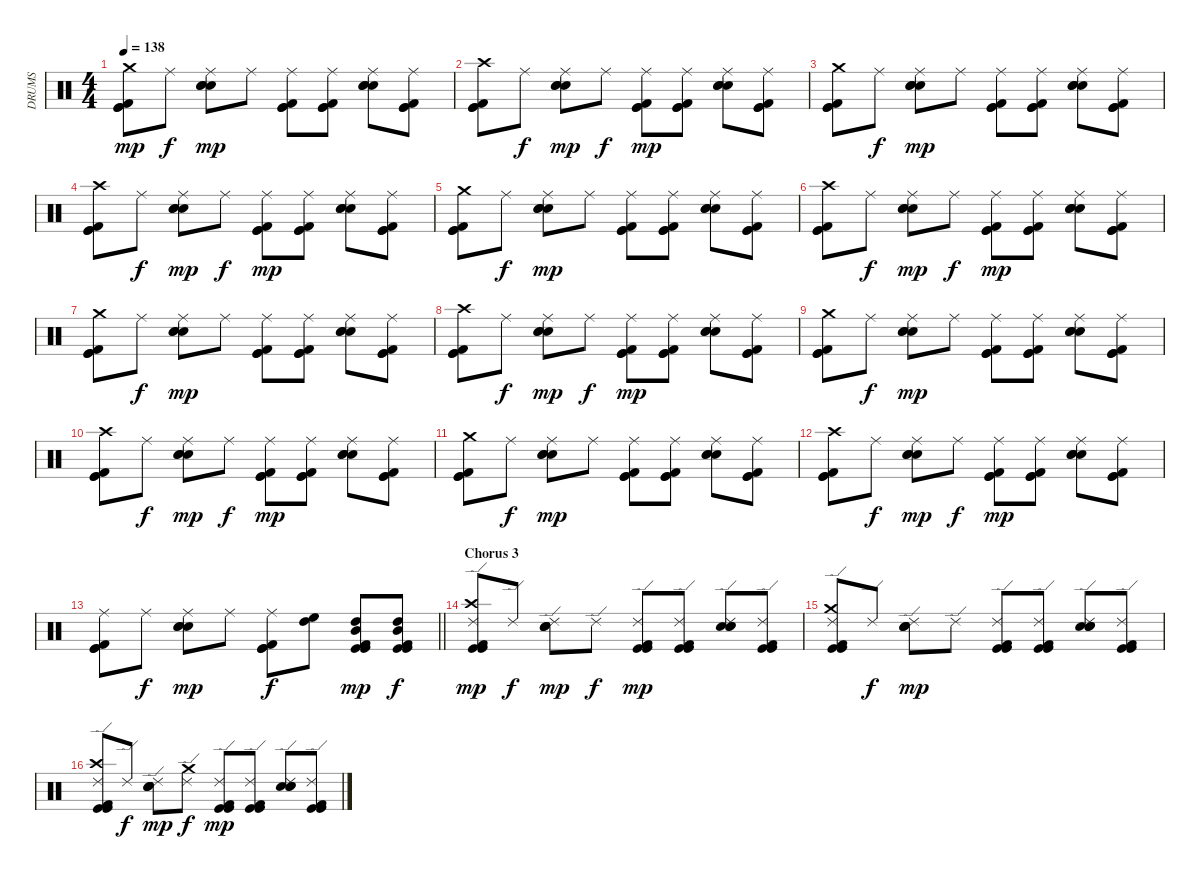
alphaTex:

\track ("DRUMS" "DRUMS") {instrument percussion}
\staff {score}
\articulation defaults
\ts (4 4)
\tempo 138
\clef neutral
\ks c
("Kick (hit) 2" "Kick (hit)" "Kick (hit)" "Crash medium (hit)").8{dy mp} "Ride (middle)".8{dy f} ("Ride (middle)" "Electric Snare (hit)" "Snare (hit) 2" "Snare (hit) 2").8{dy mp} "Ride (middle)".8 ("Ride (middle)" "Kick (hit) 2" "Kick (hit)" "Kick (hit)").8 ("Ride (middle)" "Kick (hit) 2" "Kick (hit)" "Kick (hit)").8 ("Ride (middle)" "Electric Snare (hit)" "Snare (hit) 2" "Snare (hit) 2").8 ("Ride (middle)" "Kick (hit) 2" "Kick (hit)" "Kick (hit)").8 |
("Kick (hit) 2" "Kick (hit)" "Kick (hit)" "Crash high (hit)").8 "Ride (middle)".8{dy f} ("Ride (middle)" "Electric Snare (hit)" "Snare (hit) 2" "Snare (hit) 2").8{dy mp} "Ride (middle)".8{dy f} ("Ride (middle)" "Kick (hit) 2" "Kick (hit)" "Kick (hit)").8{dy mp} ("Ride (middle)" "Kick (hit) 2" "Kick (hit)" "Kick (hit)").8 ("Ride (middle)" "Electric Snare (hit)" "Snare (hit) 2" "Snare (hit) 2").8 ("Ride (middle)" "Kick (hit) 2" "Kick (hit)" "Kick (hit)").8 |
("Kick (hit) 2" "Kick (hit)" "Kick (hit)" "Crash medium (hit)").8 "Ride (middle)".8{dy f} ("Ride (middle)" "Electric Snare (hit)" "Snare (hit) 2" "Snare (hit) 2").8{dy mp} "Ride (middle)".8 ("Ride (middle)" "Kick (hit) 2" "Kick (hit)" "Kick (hit)").8 ("Ride (middle)" "Kick (hit) 2" "Kick (hit)" "Kick (hit)").8 ("Ride (middle)" "Electric Snare (hit)" "Snare (hit) 2" "Snare (hit) 2").8 ("Ride (middle)" "Kick (hit) 2" "Kick (hit)" "Kick (hit)").8 |
("Kick (hit) 2" "Kick (hit)" "Kick (hit)" "Crash high (hit)").8 "Ride (middle)".8{dy f} ("Ride (middle)" "Electric Snare (hit)" "Snare (hit) 2" "Snare (hit) 2").8{dy mp} "Ride (middle)".8{dy f} ("Ride (middle)" "Kick (hit) 2" "Kick (hit)" "Kick (hit)").8{dy mp} ("Ride (middle)" "Kick (hit) 2" "Kick (hit)" "Kick (hit)").8 ("Ride (middle)" "Electric Snare (hit)" "Snare (hit) 2" "Snare (hit) 2").8 ("Ride (middle)" "Kick (hit) 2" "Kick (hit)" "Kick (hit)").8 |
("Kick (hit) 2" "Kick (hit)" "Kick (hit)" "Crash medium (hit)").8 "Ride (middle)".8{dy f} ("Ride (middle)" "Electric Snare (hit)" "Snare (hit) 2" "Snare (hit) 2").8{dy mp} "Ride (middle)".8 ("Ride (middle)" "Kick (hit) 2" "Kick (hit)" "Kick (hit)").8 ("Ride (middle)" "Kick (hit) 2" "Kick (hit)" "Kick (hit)").8 ("Ride (middle)" "Electric Snare (hit)" "Snare (hit) 2" "Snare (hit) 2").8 ("Ride (middle)" "Kick (hit) 2" "Kick (hit)" "Kick (hit)").8 |
("Kick (hit) 2" "Kick (hit)" "Kick (hit)" "Crash high (hit)").8 "Ride (middle)".8{dy f} ("Ride (middle)" "Electric Snare (hit)" "Snare (hit) 2" "Snare (hit) 2").8{dy mp} "Ride (middle)".8{dy f} ("Ride (middle)" "Kick (hit) 2" "Kick (hit)" "Kick (hit)").8{dy mp} ("Ride (middle)" "Kick (hit) 2" "Kick (hit)" "Kick (hit)").8 ("Ride (middle)" "Electric Snare (hit)" "Snare (hit) 2" "Snare (hit) 2").8 ("Ride (middle)" "Kick (hit) 2" "Kick (hit)" "Kick (hit)").8 |
("Kick (hit) 2" "Kick (hit)" "Kick (hit)" "Crash medium (hit)").8 "Ride (middle)".8{dy f} ("Ride (middle)" "Electric Snare (hit)" "Snare (hit) 2" "Snare (hit) 2").8{dy mp} "Ride (middle)".8 ("Ride (middle)" "Kick (hit) 2" "Kick (hit)" "Kick (hit)").8 ("Ride (middle)" "Kick (hit) 2" "Kick (hit)" "Kick (hit)").8 ("Ride (middle)" "Electric Snare (hit)" "Snare (hit) 2" "Snare (hit) 2").8 ("Ride (middle)" "Kick (hit) 2" "Kick (hit)" "Kick (hit)").8 |
("Kick (hit) 2" "Kick (hit)" "Kick (hit)" "Crash high (hit)").8 "Ride (middle)".8{dy f} ("Ride (middle)" "Electric Snare (hit)" "Snare (hit) 2" "Snare (hit) 2").8{dy mp} "Ride (middle)".8{dy f} ("Ride (middle)" "Kick (hit) 2" "Kick (hit)" "Kick (hit)").8{dy mp} ("Ride (middle)" "Kick (hit) 2" "Kick (hit)" "Kick (hit)").8 ("Ride (middle)" "Electric Snare (hit)" "Snare (hit) 2" "Snare (hit) 2").8 ("Ride (middle)" "Kick (hit) 2" "Kick (hit)" "Kick (hit)").8 |
("Kick (hit) 2" "Kick (hit)" "Kick (hit)" "Crash medium (hit)").8 "Ride (middle)".8{dy f} ("Ride (middle)" "Electric Snare (hit)" "Snare (hit) 2" "Snare (hit) 2").8{dy mp} "Ride (middle)".8 ("Ride (middle)" "Kick (hit) 2" "Kick (hit)" "Kick (hit)").8 ("Ride (middle)" "Kick (hit) 2" "Kick (hit)" "Kick (hit)").8 ("Ride (middle)" "Electric Snare (hit)" "Snare (hit) 2" "Snare (hit) 2").8 ("Ride (middle)" "Kick (hit) 2" "Kick (hit)" "Kick (hit)").8 |
("Kick (hit) 2" "Kick (hit)" "Kick (hit)" "Crash high (hit)").8 "Ride (middle)".8{dy f} ("Ride (middle)" "Electric Snare (hit)" "Snare (hit) 2" "Snare (hit) 2").8{dy mp} "Ride (middle)".8{dy f} ("Ride (middle)" "Kick (hit) 2" "Kick (hit)" "Kick (hit)").8{dy mp} ("Ride (middle)" "Kick (hit) 2" "Kick (hit)" "Kick (hit)").8 ("Ride (middle)" "Electric Snare (hit)" "Snare (hit) 2" "Snare (hit) 2").8 ("Ride (middle)" "Kick (hit) 2" "Kick (hit)" "Kick (hit)").8 |
("Kick (hit) 2" "Kick (hit)" "Kick (hit)" "Crash medium (hit)").8 "Ride (middle)".8{dy f} ("Ride (middle)" "Electric Snare (hit)" "Snare (hit) 2" "Snare (hit) 2").8{dy mp} "Ride (middle)".8 ("Ride (middle)" "Kick (hit) 2" "Kick (hit)" "Kick (hit)").8 ("Ride (middle)" "Kick (hit) 2" "Kick (hit)" "Kick (hit)").8 ("Ride (middle)" "Electric Snare (hit)" "Snare (hit) 2" "Snare (hit) 2").8 ("Ride (middle)" "Kick (hit) 2" "Kick (hit)" "Kick (hit)").8 |
("Kick (hit) 2" "Kick (hit)" "Kick (hit)" "Crash high (hit)").8 "Ride (middle)".8{dy f} ("Ride (middle)" "Electric Snare (hit)" "Snare (hit) 2" "Snare (hit) 2").8{dy mp} "Ride (middle)".8{dy f} ("Ride (middle)" "Kick (hit) 2" "Kick (hit)" "Kick (hit)").8{dy mp} ("Ride (middle)" "Kick (hit) 2" "Kick (hit)" "Kick (hit)").8 ("Ride (middle)" "Electric Snare (hit)" "Snare (hit) 2" "Snare (hit) 2").8 ("Ride (middle)" "Kick (hit) 2" "Kick (hit)" "Kick (hit)").8 |
\barLineRight lightlight
("Ride (middle)" "Kick (hit) 2" "Kick (hit)" "Kick (hit)").8 "Ride (middle)".8{dy f} ("Ride (middle)" "Electric Snare (hit)" "Snare (hit) 2" "Snare (hit) 2").8{dy mp} "Ride (middle)".8 ("Ride (middle)" "Kick (hit) 2" "Kick (hit)" "Kick (hit)").8{dy f} ("High Floor Tom (hit)" "High Tom (hit)").8{volume 12} ("Kick (hit) 2" "Kick (hit)" "Kick (hit)" "High Tom (hit)" "Mid Tom (hit)").8{dy mp balance 4} ("Kick (hit) 2" "Kick (hit)" "Kick (hit)" "High Tom (hit)" "Mid Tom (hit)").8{dy f balance 12} |
\section ("" "Chorus 3")
("Ride (edge) 2" "Kick (hit) 2" "Kick (hit)" "Kick (hit)" "Crash high (hit)").8{dy mp volume 8 balance 8} "Ride (edge) 2".8{dy f} ("Ride (edge) 2" "Electric Snare (hit)" "Snare (hit) 2" "Snare (hit) 2").8{dy mp} "Ride (edge) 2".8{dy f} ("Ride (edge) 2" "Kick (hit) 2" "Kick (hit)" "Kick (hit)").8{dy mp} ("Ride (edge) 2" "Kick (hit) 2" "Kick (hit)" "Kick (hit)").8 ("Ride (edge) 2" "Electric Snare (hit)" "Snare (hit) 2" "Snare (hit) 2").8 ("Ride (edge) 2" "Kick (hit) 2" "Kick (hit)" "Kick (hit)").8 |
("Ride (edge) 2" "Kick (hit) 2" "Kick (hit)" "Kick (hit)" "Crash medium (hit)").8 "Ride (edge) 2".8{dy f} ("Ride (edge) 2" "Electric Snare (hit)" "Snare (hit) 2" "Snare (hit) 2").8{dy mp} "Ride (edge) 2".8 ("Ride (edge) 2" "Kick (hit) 2" "Kick (hit)" "Kick (hit)").8 ("Ride (edge) 2" "Kick (hit) 2" "Kick (hit)" "Kick (hit)").8 ("Ride (edge) 2" "Electric Snare (hit)" "Snare (hit) 2" "Snare (hit) 2").8 ("Ride (edge) 2" "Kick (hit) 2" "Kick (hit)" "Kick (hit)").8 |
("Ride (edge) 2" "Kick (hit) 2" "Kick (hit)" "Kick (hit)" "Crash high (hit)").8 "Ride (edge) 2".8{dy f} ("Ride (edge) 2" "Electric Snare (hit)" "Snare (hit) 2" "Snare (hit) 2").8{dy mp} ("Ride (edge) 2" "Crash medium (hit)").8{dy f} ("Ride (edge) 2" "Kick (hit) 2" "Kick (hit)" "Kick (hit)").8{dy mp} ("Ride (edge) 2" "Kick (hit) 2" "Kick (hit)" "Kick (hit)").8 ("Ride (edge) 2" "Electric Snare (hit)" "Snare (hit) 2" "Snare (hit) 2").8 ("Ride (edge) 2" "Kick (hit) 2" "Kick (hit)" "Kick (hit)").8
